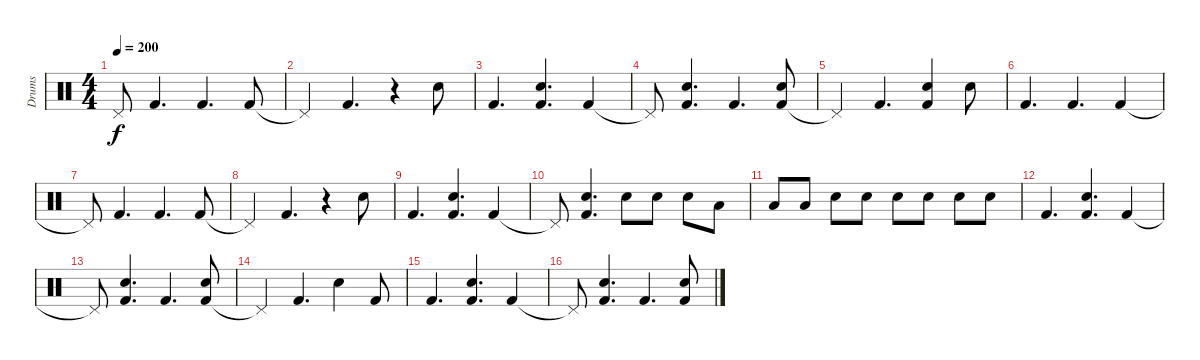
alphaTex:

\track ("Drums" "Drums") {instrument percussion}
\staff {score}
\articulation defaults
\ts (4 4)
\tempo 200
\clef neutral
\ks c "Pedal Hi-Hat (hit)"{t}.8{dy f} "Kick (hit) 2".4{d} "Kick (hit) 2".4{d} "Kick (hit) 2".8
|
"Pedal Hi-Hat (hit)"{t}.4 "Kick (hit) 2".4{d} r.4 "Snare (hit) 2".8 |
"Kick (hit) 2".4{d} ("Kick (hit) 2" "Snare (hit) 2").4{d} "Kick (hit) 2".4 |
"Pedal Hi-Hat (hit)"{t}.8 ("Kick (hit) 2" "Snare (hit) 2").4{d} "Kick (hit) 2".4{d} ("Kick (hit) 2" "Snare (hit) 2").8 |
"Pedal Hi-Hat (hit)"{t}.4 "Kick (hit) 2".4{d} ("Kick (hit) 2" "Snare (hit) 2").4 "Snare (hit) 2".8 |
"Kick (hit) 2".4{d} "Kick (hit) 2".4{d} "Kick (hit) 2".4 |
"Pedal Hi-Hat (hit)"{t}.8 "Kick (hit) 2".4{d} "Kick (hit) 2".4{d} "Kick (hit) 2".8 |
"Pedal Hi-Hat (hit)"{t}.4 "Kick (hit) 2".4{d} r.4 "Snare (hit) 2".8 |
"Kick (hit) 2".4{d} ("Kick (hit) 2" "Snare (hit) 2").4{d} "Kick (hit) 2".4 |
"Pedal Hi-Hat (hit)"{t}.8 ("Kick (hit) 2" "Snare (hit) 2").4{d} "Snare (hit) 2".8 "Snare (hit) 2".8 "Snare (hit) 2".8 "Low Tom (hit)".8 |
"Low Tom (hit)".8 "Low Tom (hit)".8 "Snare (hit) 2".8 "Snare (hit) 2".8 "Snare (hit) 2".8 "Snare (hit) 2".8 "Snare (hit) 2".8 "Snare (hit) 2".8 |
"Kick (hit) 2".4{d} ("Kick (hit) 2" "Snare (hit) 2").4{d} "Kick (hit) 2".4 |
"Pedal Hi-Hat (hit)"{t}.8 ("Kick (hit) 2" "Snare (hit) 2").4{d} "Kick (hit) 2".4{d} ("Kick (hit) 2" "Snare (hit) 2").8 |
"Pedal Hi-Hat (hit)"{t}.4 "Kick (hit) 2".4{d} "Snare (hit) 2".4 "Kick (hit) 2".8 |
"Kick (hit) 2".4{d} ("Kick (hit) 2" "Snare (hit) 2").4{d} "Kick (hit) 2".4 |
"Pedal Hi-Hat (hit)"{t}.8 ("Kick (hit) 2" "Snare (hit) 2").4{d} "Kick (hit) 2".4{d} ("Kick (hit) 2" "Snare (hit) 2").8
